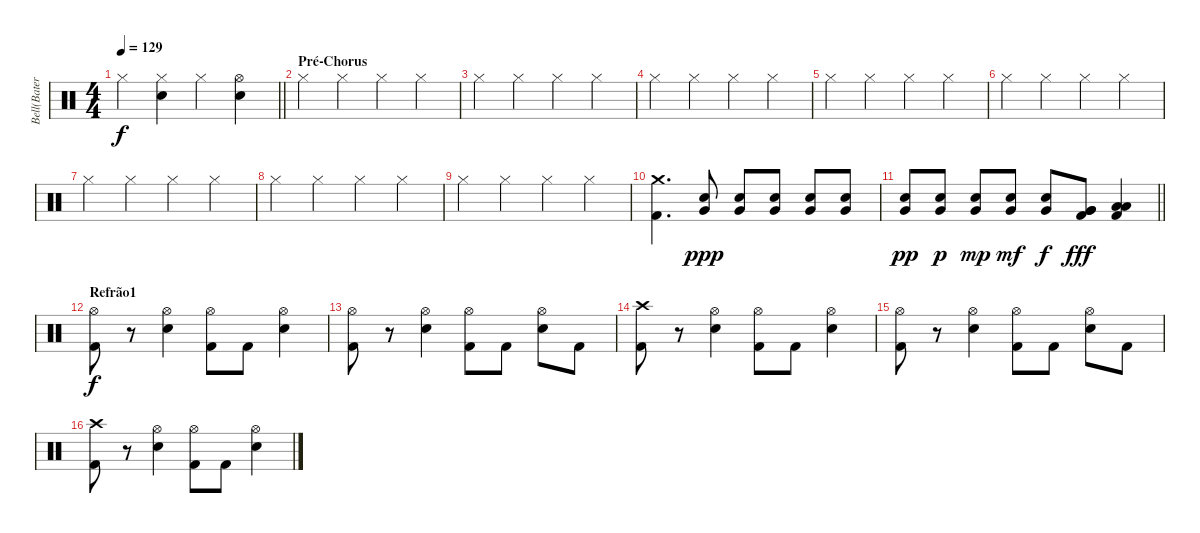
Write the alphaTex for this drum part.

\track ("Bell(Bateria)" "Bell(Bater") {instrument percussion}
\staff {score}
\articulation defaults
\ts (4 4)
\tempo 129
\clef neutral
\barLineRight lightlight
\ks c "Hi-Hat (closed)".4{dy f}
("Hi-Hat (closed)" "Electric Snare (hit)").4 "Hi-Hat (closed)".4 ("Hi-Hat (open)" "Electric Snare (hit)").4 |
\section ("" "Pré-Chorus")
"Hi-Hat (closed)".4 "Hi-Hat (closed)".4 "Hi-Hat (closed)".4 "Hi-Hat (closed)".4 |
"Hi-Hat (closed)".4 "Hi-Hat (closed)".4 "Hi-Hat (closed)".4 "Hi-Hat (closed)".4 |
"Hi-Hat (closed)".4 "Hi-Hat (closed)".4 "Hi-Hat (closed)".4 "Hi-Hat (closed)".4 |
"Hi-Hat (closed)".4 "Hi-Hat (closed)".4 "Hi-Hat (closed)".4 "Hi-Hat (closed)".4 |
"Hi-Hat (closed)".4 "Hi-Hat (closed)".4 "Hi-Hat (closed)".4 "Hi-Hat (closed)".4 |
"Hi-Hat (closed)".4 "Hi-Hat (closed)".4 "Hi-Hat (closed)".4 "Hi-Hat (closed)".4 |
"Hi-Hat (closed)".4 "Hi-Hat (closed)".4 "Hi-Hat (closed)".4 "Hi-Hat (closed)".4 |
"Hi-Hat (closed)".4 "Hi-Hat (closed)".4 "Hi-Hat (closed)".4 "Hi-Hat (closed)".4 |
("Crash medium (hit)" "Kick (hit) 2").4{d} ("Very Low Tom (hit)" "Electric Snare (hit)").8{dy ppp} ("Very Low Tom (hit)" "Electric Snare (hit)").8 ("Very Low Tom (hit)" "Electric Snare (hit)").8 ("Very Low Tom (hit)" "Electric Snare (hit)").8 ("Very Low Tom (hit)" "Electric Snare (hit)").8 |
\barLineRight lightlight
("Very Low Tom (hit)" "Electric Snare (hit)").8{dy pp} ("Very Low Tom (hit)" "Electric Snare (hit)").8{dy p} ("Very Low Tom (hit)" "Electric Snare (hit)").8{dy mp} ("Very Low Tom (hit)" "Electric Snare (hit)").8{dy mf} ("Very Low Tom (hit)" "Electric Snare (hit)").8{dy f} ("Very Low Tom (hit)" "Very Low Tom (hit)" "Kick (hit) 2").8{dy fff} ("Low Floor Tom (hit)" "Low Floor Tom (hit)" "Kick (hit) 2").4 |
\section ("" "Refrão1")
("Hi-Hat (open)" "Kick (hit) 2").8{dy f} r.8 ("Hi-Hat (open)" "Electric Snare (hit)").4 ("Hi-Hat (open)" "Kick (hit) 2").8 "Kick (hit) 2".8 ("Hi-Hat (open)" "Electric Snare (hit)").4 |
("Hi-Hat (open)" "Kick (hit) 2").8 r.8 ("Hi-Hat (open)" "Electric Snare (hit)").4 ("Hi-Hat (open)" "Kick (hit) 2").8 "Kick (hit) 2".8 ("Hi-Hat (open)" "Electric Snare (hit)").8 "Kick (hit) 2".8 |
("Crash high (hit)" "Kick (hit) 2").8 r.8 ("Hi-Hat (open)" "Electric Snare (hit)").4 ("Hi-Hat (open)" "Kick (hit) 2").8 "Kick (hit) 2".8 ("Hi-Hat (open)" "Electric Snare (hit)").4 |
("Hi-Hat (open)" "Kick (hit) 2").8 r.8 ("Hi-Hat (open)" "Electric Snare (hit)").4 ("Hi-Hat (open)" "Kick (hit) 2").8 "Kick (hit) 2".8 ("Hi-Hat (open)" "Electric Snare (hit)").8 "Kick (hit) 2".8 |
("Crash high (hit)" "Kick (hit) 2").8 r.8 ("Hi-Hat (open)" "Electric Snare (hit)").4 ("Hi-Hat (open)" "Kick (hit) 2").8 "Kick (hit) 2".8 ("Hi-Hat (open)" "Electric Snare (hit)").4
